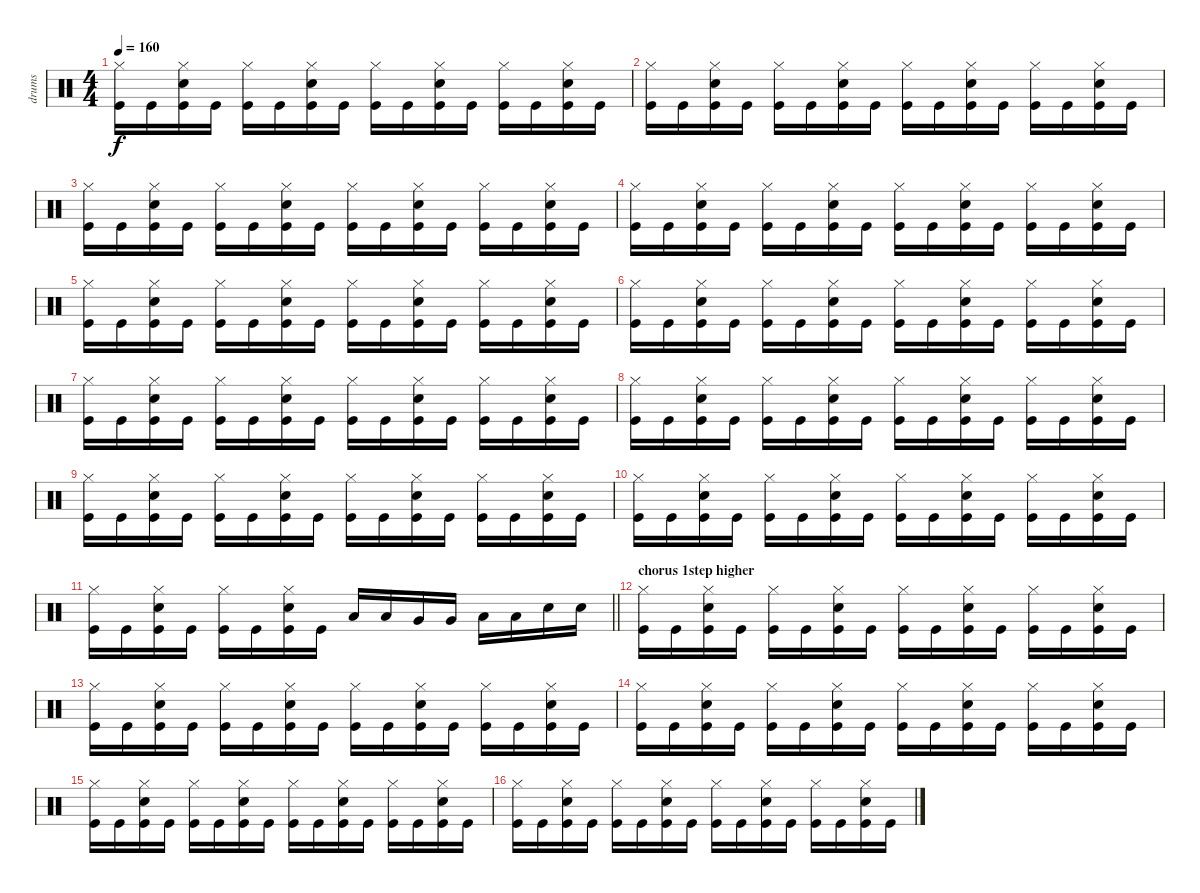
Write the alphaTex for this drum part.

\track ("drums" "drums") {instrument percussion}
\staff {score}
\articulation defaults
\ts (4 4)
\tempo 160
\clef neutral
\ks c
("Kick (hit)" "Hi-Hat (closed)").16{dy f} "Kick (hit)".16 ("Kick (hit)" "Hi-Hat (closed)" "Snare (hit) 2").16 "Kick (hit)".16 ("Kick (hit)" "Hi-Hat (closed)").16 "Kick (hit)".16 ("Kick (hit)" "Hi-Hat (closed)" "Snare (hit) 2").16 "Kick (hit)".16 ("Kick (hit)" "Hi-Hat (closed)").16 "Kick (hit)".16 ("Kick (hit)" "Hi-Hat (closed)" "Snare (hit) 2").16 "Kick (hit)".16 ("Kick (hit)" "Hi-Hat (closed)").16 "Kick (hit)".16 ("Kick (hit)" "Hi-Hat (closed)" "Snare (hit) 2").16 "Kick (hit)".16 |
("Kick (hit)" "Hi-Hat (closed)").16 "Kick (hit)".16 ("Kick (hit)" "Hi-Hat (closed)" "Snare (hit) 2").16 "Kick (hit)".16 ("Kick (hit)" "Hi-Hat (closed)").16 "Kick (hit)".16 ("Kick (hit)" "Hi-Hat (closed)" "Snare (hit) 2").16 "Kick (hit)".16 ("Kick (hit)" "Hi-Hat (closed)").16 "Kick (hit)".16 ("Kick (hit)" "Hi-Hat (closed)" "Snare (hit) 2").16 "Kick (hit)".16 ("Kick (hit)" "Hi-Hat (closed)").16 "Kick (hit)".16 ("Kick (hit)" "Hi-Hat (closed)" "Snare (hit) 2").16 "Kick (hit)".16 |
("Kick (hit)" "Hi-Hat (closed)").16 "Kick (hit)".16 ("Kick (hit)" "Hi-Hat (closed)" "Snare (hit) 2").16 "Kick (hit)".16 ("Kick (hit)" "Hi-Hat (closed)").16 "Kick (hit)".16 ("Kick (hit)" "Hi-Hat (closed)" "Snare (hit) 2").16 "Kick (hit)".16 ("Kick (hit)" "Hi-Hat (closed)").16 "Kick (hit)".16 ("Kick (hit)" "Hi-Hat (closed)" "Snare (hit) 2").16 "Kick (hit)".16 ("Kick (hit)" "Hi-Hat (closed)").16 "Kick (hit)".16 ("Kick (hit)" "Hi-Hat (closed)" "Snare (hit) 2").16 "Kick (hit)".16 |
("Kick (hit)" "Hi-Hat (closed)").16 "Kick (hit)".16 ("Kick (hit)" "Hi-Hat (closed)" "Snare (hit) 2").16 "Kick (hit)".16 ("Kick (hit)" "Hi-Hat (closed)").16 "Kick (hit)".16 ("Kick (hit)" "Hi-Hat (closed)" "Snare (hit) 2").16 "Kick (hit)".16 ("Kick (hit)" "Hi-Hat (closed)").16 "Kick (hit)".16 ("Kick (hit)" "Hi-Hat (closed)" "Snare (hit) 2").16 "Kick (hit)".16 ("Kick (hit)" "Hi-Hat (closed)").16 "Kick (hit)".16 ("Kick (hit)" "Hi-Hat (closed)" "Snare (hit) 2").16 "Kick (hit)".16 |
("Kick (hit)" "Hi-Hat (closed)").16 "Kick (hit)".16 ("Kick (hit)" "Hi-Hat (closed)" "Snare (hit) 2").16 "Kick (hit)".16 ("Kick (hit)" "Hi-Hat (closed)").16 "Kick (hit)".16 ("Kick (hit)" "Hi-Hat (closed)" "Snare (hit) 2").16 "Kick (hit)".16 ("Kick (hit)" "Hi-Hat (closed)").16 "Kick (hit)".16 ("Kick (hit)" "Hi-Hat (closed)" "Snare (hit) 2").16 "Kick (hit)".16 ("Kick (hit)" "Hi-Hat (closed)").16 "Kick (hit)".16 ("Kick (hit)" "Hi-Hat (closed)" "Snare (hit) 2").16 "Kick (hit)".16 |
("Kick (hit)" "Hi-Hat (closed)").16 "Kick (hit)".16 ("Kick (hit)" "Hi-Hat (closed)" "Snare (hit) 2").16 "Kick (hit)".16 ("Kick (hit)" "Hi-Hat (closed)").16 "Kick (hit)".16 ("Kick (hit)" "Hi-Hat (closed)" "Snare (hit) 2").16 "Kick (hit)".16 ("Kick (hit)" "Hi-Hat (closed)").16 "Kick (hit)".16 ("Kick (hit)" "Hi-Hat (closed)" "Snare (hit) 2").16 "Kick (hit)".16 ("Kick (hit)" "Hi-Hat (closed)").16 "Kick (hit)".16 ("Kick (hit)" "Hi-Hat (closed)" "Snare (hit) 2").16 "Kick (hit)".16 |
("Kick (hit)" "Hi-Hat (closed)").16 "Kick (hit)".16 ("Kick (hit)" "Hi-Hat (closed)" "Snare (hit) 2").16 "Kick (hit)".16 ("Kick (hit)" "Hi-Hat (closed)").16 "Kick (hit)".16 ("Kick (hit)" "Hi-Hat (closed)" "Snare (hit) 2").16 "Kick (hit)".16 ("Kick (hit)" "Hi-Hat (closed)").16 "Kick (hit)".16 ("Kick (hit)" "Hi-Hat (closed)" "Snare (hit) 2").16 "Kick (hit)".16 ("Kick (hit)" "Hi-Hat (closed)").16 "Kick (hit)".16 ("Kick (hit)" "Hi-Hat (closed)" "Snare (hit) 2").16 "Kick (hit)".16 |
("Kick (hit)" "Hi-Hat (closed)").16 "Kick (hit)".16 ("Kick (hit)" "Hi-Hat (closed)" "Snare (hit) 2").16 "Kick (hit)".16 ("Kick (hit)" "Hi-Hat (closed)").16 "Kick (hit)".16 ("Kick (hit)" "Hi-Hat (closed)" "Snare (hit) 2").16 "Kick (hit)".16 ("Kick (hit)" "Hi-Hat (closed)").16 "Kick (hit)".16 ("Kick (hit)" "Hi-Hat (closed)" "Snare (hit) 2").16 "Kick (hit)".16 ("Kick (hit)" "Hi-Hat (closed)").16 "Kick (hit)".16 ("Kick (hit)" "Hi-Hat (closed)" "Snare (hit) 2").16 "Kick (hit)".16 |
("Kick (hit)" "Hi-Hat (closed)").16 "Kick (hit)".16 ("Kick (hit)" "Hi-Hat (closed)" "Snare (hit) 2").16 "Kick (hit)".16 ("Kick (hit)" "Hi-Hat (closed)").16 "Kick (hit)".16 ("Kick (hit)" "Hi-Hat (closed)" "Snare (hit) 2").16 "Kick (hit)".16 ("Kick (hit)" "Hi-Hat (closed)").16 "Kick (hit)".16 ("Kick (hit)" "Hi-Hat (closed)" "Snare (hit) 2").16 "Kick (hit)".16 ("Kick (hit)" "Hi-Hat (closed)").16 "Kick (hit)".16 ("Kick (hit)" "Hi-Hat (closed)" "Snare (hit) 2").16 "Kick (hit)".16 |
("Kick (hit)" "Hi-Hat (closed)").16 "Kick (hit)".16 ("Kick (hit)" "Hi-Hat (closed)" "Snare (hit) 2").16 "Kick (hit)".16 ("Kick (hit)" "Hi-Hat (closed)").16 "Kick (hit)".16 ("Kick (hit)" "Hi-Hat (closed)" "Snare (hit) 2").16 "Kick (hit)".16 ("Kick (hit)" "Hi-Hat (closed)").16 "Kick (hit)".16 ("Kick (hit)" "Hi-Hat (closed)" "Snare (hit) 2").16 "Kick (hit)".16 ("Kick (hit)" "Hi-Hat (closed)").16 "Kick (hit)".16 ("Kick (hit)" "Hi-Hat (closed)" "Snare (hit) 2").16 "Kick (hit)".16 |
\barLineRight lightlight
("Kick (hit)" "Hi-Hat (closed)").16 "Kick (hit)".16 ("Kick (hit)" "Hi-Hat (closed)" "Snare (hit) 2").16 "Kick (hit)".16 ("Kick (hit)" "Hi-Hat (closed)").16 "Kick (hit)".16 ("Kick (hit)" "Hi-Hat (closed)" "Snare (hit) 2").16 "Kick (hit)".16 "Low Tom (hit)".16 "Low Tom (hit)".16 "Very Low Tom (hit)".16 "Very Low Tom (hit)".16 "Low Floor Tom (hit)".16 "Low Floor Tom (hit)".16 "Snare (hit) 2".16 "Snare (hit) 2".16 |
\section ("" "chorus 1step higher")
("Kick (hit)" "Hi-Hat (closed)").16 "Kick (hit)".16 ("Kick (hit)" "Hi-Hat (closed)" "Snare (hit) 2").16 "Kick (hit)".16 ("Kick (hit)" "Hi-Hat (closed)").16 "Kick (hit)".16 ("Kick (hit)" "Hi-Hat (closed)" "Snare (hit) 2").16 "Kick (hit)".16 ("Kick (hit)" "Hi-Hat (closed)").16 "Kick (hit)".16 ("Kick (hit)" "Hi-Hat (closed)" "Snare (hit) 2").16 "Kick (hit)".16 ("Kick (hit)" "Hi-Hat (closed)").16 "Kick (hit)".16 ("Kick (hit)" "Hi-Hat (closed)" "Snare (hit) 2").16 "Kick (hit)".16 |
("Kick (hit)" "Hi-Hat (closed)").16 "Kick (hit)".16 ("Kick (hit)" "Hi-Hat (closed)" "Snare (hit) 2").16 "Kick (hit)".16 ("Kick (hit)" "Hi-Hat (closed)").16 "Kick (hit)".16 ("Kick (hit)" "Hi-Hat (closed)" "Snare (hit) 2").16 "Kick (hit)".16 ("Kick (hit)" "Hi-Hat (closed)").16 "Kick (hit)".16 ("Kick (hit)" "Hi-Hat (closed)" "Snare (hit) 2").16 "Kick (hit)".16 ("Kick (hit)" "Hi-Hat (closed)").16 "Kick (hit)".16 ("Kick (hit)" "Hi-Hat (closed)" "Snare (hit) 2").16 "Kick (hit)".16 |
("Kick (hit)" "Hi-Hat (closed)").16 "Kick (hit)".16 ("Kick (hit)" "Hi-Hat (closed)" "Snare (hit) 2").16 "Kick (hit)".16 ("Kick (hit)" "Hi-Hat (closed)").16 "Kick (hit)".16 ("Kick (hit)" "Hi-Hat (closed)" "Snare (hit) 2").16 "Kick (hit)".16 ("Kick (hit)" "Hi-Hat (closed)").16 "Kick (hit)".16 ("Kick (hit)" "Hi-Hat (closed)" "Snare (hit) 2").16 "Kick (hit)".16 ("Kick (hit)" "Hi-Hat (closed)").16 "Kick (hit)".16 ("Kick (hit)" "Hi-Hat (closed)" "Snare (hit) 2").16 "Kick (hit)".16 |
("Kick (hit)" "Hi-Hat (closed)").16 "Kick (hit)".16 ("Kick (hit)" "Hi-Hat (closed)" "Snare (hit) 2").16 "Kick (hit)".16 ("Kick (hit)" "Hi-Hat (closed)").16 "Kick (hit)".16 ("Kick (hit)" "Hi-Hat (closed)" "Snare (hit) 2").16 "Kick (hit)".16 ("Kick (hit)" "Hi-Hat (closed)").16 "Kick (hit)".16 ("Kick (hit)" "Hi-Hat (closed)" "Snare (hit) 2").16 "Kick (hit)".16 ("Kick (hit)" "Hi-Hat (closed)").16 "Kick (hit)".16 ("Kick (hit)" "Hi-Hat (closed)" "Snare (hit) 2").16 "Kick (hit)".16 |
("Kick (hit)" "Hi-Hat (closed)").16 "Kick (hit)".16 ("Kick (hit)" "Hi-Hat (closed)" "Snare (hit) 2").16 "Kick (hit)".16 ("Kick (hit)" "Hi-Hat (closed)").16 "Kick (hit)".16 ("Kick (hit)" "Hi-Hat (closed)" "Snare (hit) 2").16 "Kick (hit)".16 ("Kick (hit)" "Hi-Hat (closed)").16 "Kick (hit)".16 ("Kick (hit)" "Hi-Hat (closed)" "Snare (hit) 2").16 "Kick (hit)".16 ("Kick (hit)" "Hi-Hat (closed)").16 "Kick (hit)".16 ("Kick (hit)" "Hi-Hat (closed)" "Snare (hit) 2").16 "Kick (hit)".16
